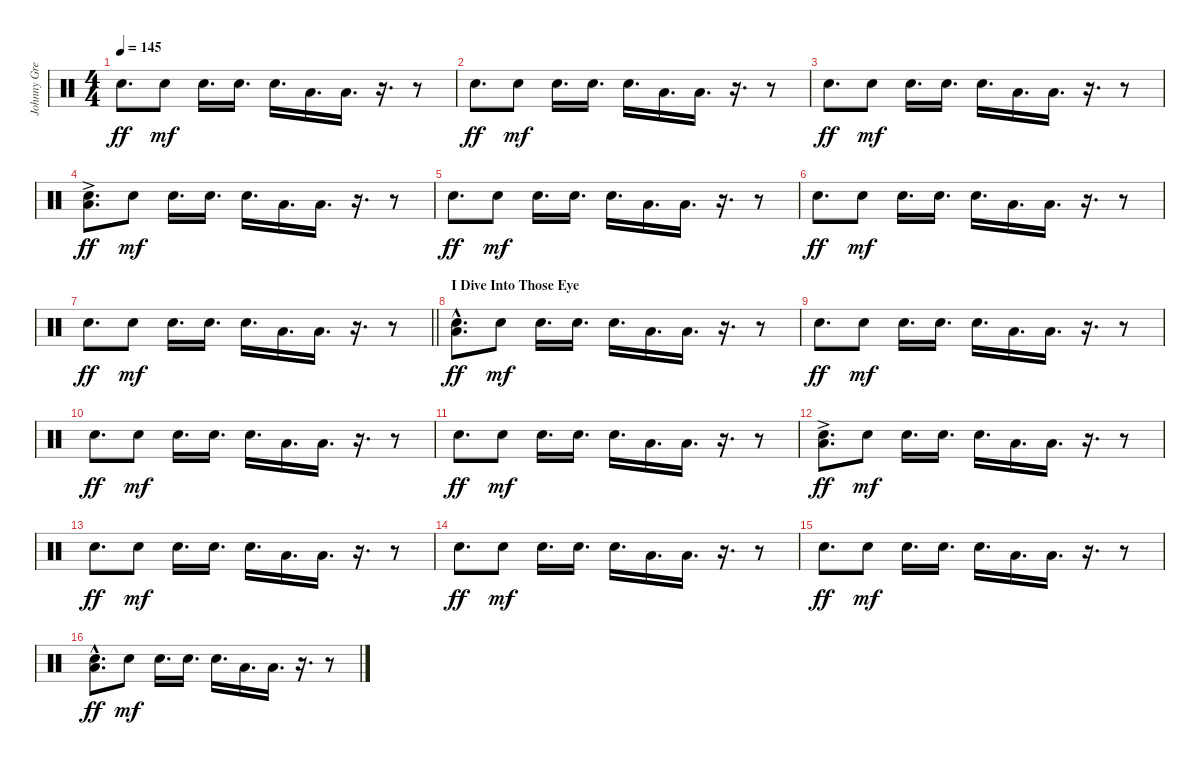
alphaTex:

\track ("Johnny Greenwood" "Johnny Gre") {instrument percussion}
\staff {score}
\articulation defaults
\ts (4 4)
\tempo 145
\clef neutral
\ks c "Snare (hit) 2".8{d dy ff} "Snare (hit) 2".8{dy mf} "Snare (hit) 2".16{d} "Snare (hit) 2".16{d} "Snare (hit) 2".16{d} "Low Floor Tom (hit)".16{d} "Low Floor Tom (hit)".16{d}
r.16{d} r.8 |
"Snare (hit) 2".8{d dy ff} "Snare (hit) 2".8{dy mf} "Snare (hit) 2".16{d} "Snare (hit) 2".16{d} "Snare (hit) 2".16{d} "Low Floor Tom (hit)".16{d} "Low Floor Tom (hit)".16{d} r.16{d} r.8 |
"Snare (hit) 2".8{d dy ff} "Snare (hit) 2".8{dy mf} "Snare (hit) 2".16{d} "Snare (hit) 2".16{d} "Snare (hit) 2".16{d} "Low Floor Tom (hit)".16{d} "Low Floor Tom (hit)".16{d} r.16{d} r.8 |
("Snare (hit) 2" "Low Floor Tom (hit)"{ac}).8{d dy ff} "Snare (hit) 2".8{dy mf} "Snare (hit) 2".16{d} "Snare (hit) 2".16{d} "Snare (hit) 2".16{d} "Low Floor Tom (hit)".16{d} "Low Floor Tom (hit)".16{d} r.16{d} r.8 |
"Snare (hit) 2".8{d dy ff} "Snare (hit) 2".8{dy mf} "Snare (hit) 2".16{d} "Snare (hit) 2".16{d} "Snare (hit) 2".16{d} "Low Floor Tom (hit)".16{d} "Low Floor Tom (hit)".16{d} r.16{d} r.8 |
"Snare (hit) 2".8{d dy ff} "Snare (hit) 2".8{dy mf} "Snare (hit) 2".16{d} "Snare (hit) 2".16{d} "Snare (hit) 2".16{d} "Low Floor Tom (hit)".16{d} "Low Floor Tom (hit)".16{d} r.16{d} r.8 |
\barLineRight lightlight "Snare (hit) 2".8{d dy ff} "Snare (hit) 2".8{dy mf} "Snare (hit) 2".16{d} "Snare (hit) 2".16{d} "Snare (hit) 2".16{d} "Low Floor Tom (hit)".16{d} "Low Floor Tom (hit)".16{d}
r.16{d} r.8 |
\section ("" "I Dive Into Those Eye")
("Snare (hit) 2" "Low Floor Tom (hit)"{hac}).8{d dy ff} "Snare (hit) 2".8{dy mf} "Snare (hit) 2".16{d} "Snare (hit) 2".16{d} "Snare (hit) 2".16{d} "Low Floor Tom (hit)".16{d} "Low Floor Tom (hit)".16{d} r.16{d} r.8 |
"Snare (hit) 2".8{d dy ff} "Snare (hit) 2".8{dy mf} "Snare (hit) 2".16{d} "Snare (hit) 2".16{d} "Snare (hit) 2".16{d} "Low Floor Tom (hit)".16{d} "Low Floor Tom (hit)".16{d} r.16{d} r.8 |
"Snare (hit) 2".8{d dy ff} "Snare (hit) 2".8{dy mf} "Snare (hit) 2".16{d} "Snare (hit) 2".16{d} "Snare (hit) 2".16{d} "Low Floor Tom (hit)".16{d} "Low Floor Tom (hit)".16{d} r.16{d} r.8 |
"Snare (hit) 2".8{d dy ff} "Snare (hit) 2".8{dy mf} "Snare (hit) 2".16{d} "Snare (hit) 2".16{d} "Snare (hit) 2".16{d} "Low Floor Tom (hit)".16{d} "Low Floor Tom (hit)".16{d} r.16{d} r.8 |
("Snare (hit) 2" "Low Floor Tom (hit)"{ac}).8{d dy ff} "Snare (hit) 2".8{dy mf} "Snare (hit) 2".16{d} "Snare (hit) 2".16{d} "Snare (hit) 2".16{d} "Low Floor Tom (hit)".16{d} "Low Floor Tom (hit)".16{d} r.16{d} r.8 |
"Snare (hit) 2".8{d dy ff} "Snare (hit) 2".8{dy mf} "Snare (hit) 2".16{d} "Snare (hit) 2".16{d} "Snare (hit) 2".16{d} "Low Floor Tom (hit)".16{d} "Low Floor Tom (hit)".16{d} r.16{d} r.8 |
"Snare (hit) 2".8{d dy ff} "Snare (hit) 2".8{dy mf} "Snare (hit) 2".16{d} "Snare (hit) 2".16{d} "Snare (hit) 2".16{d} "Low Floor Tom (hit)".16{d} "Low Floor Tom (hit)".16{d} r.16{d} r.8 |
"Snare (hit) 2".8{d dy ff} "Snare (hit) 2".8{dy mf} "Snare (hit) 2".16{d} "Snare (hit) 2".16{d} "Snare (hit) 2".16{d} "Low Floor Tom (hit)".16{d} "Low Floor Tom (hit)".16{d} r.16{d} r.8 |
("Snare (hit) 2" "Low Floor Tom (hit)"{hac}).8{d dy ff} "Snare (hit) 2".8{dy mf} "Snare (hit) 2".16{d} "Snare (hit) 2".16{d} "Snare (hit) 2".16{d} "Low Floor Tom (hit)".16{d} "Low Floor Tom (hit)".16{d} r.16{d} r.8
